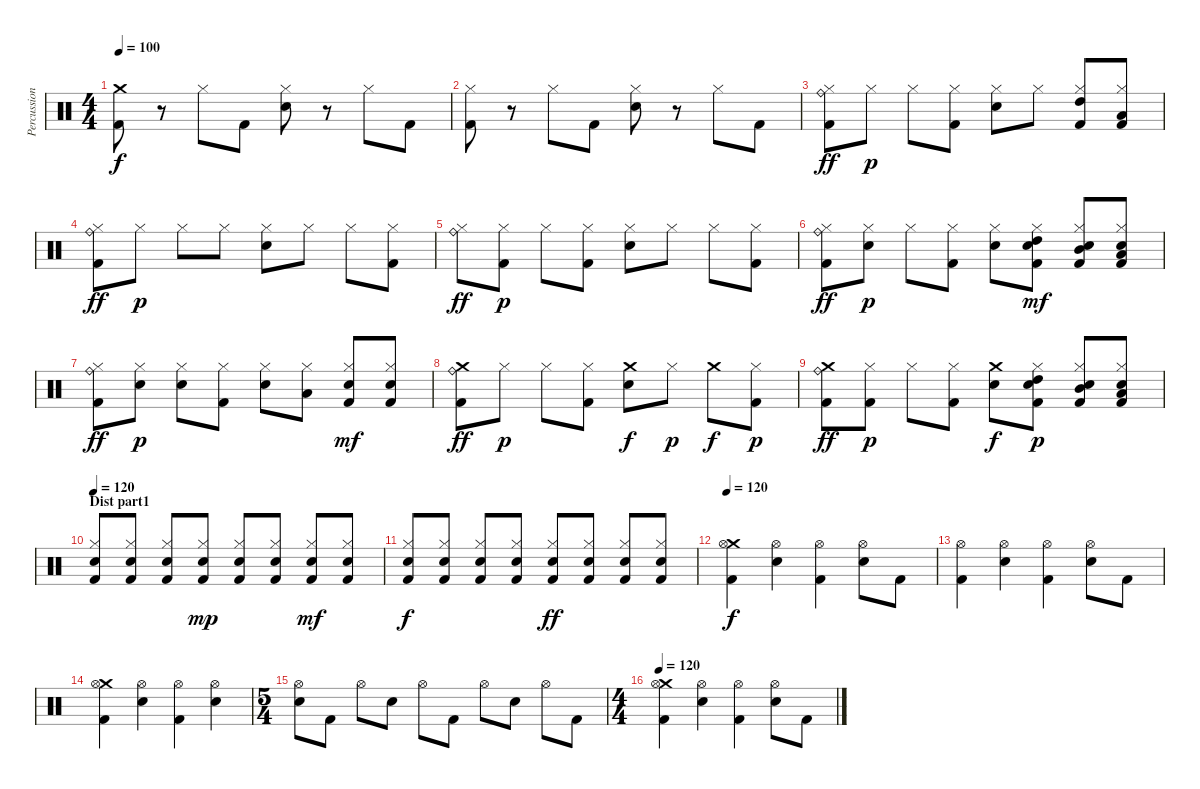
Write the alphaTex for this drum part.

\track ("Percussion" "Percussion") {instrument percussion}
\staff {score}
\articulation defaults
\ts (4 4)
\tempo 100
\clef neutral
\ks c
("Crash medium (hit)" "Kick (hit) 2").8{dy f} r.8 "Hi-Hat (closed)".8 "Kick (hit) 2".8 ("Hi-Hat (closed)" "Snare (hit) 2").8 r.8 "Hi-Hat (closed)".8 "Kick (hit) 2".8 |
("Hi-Hat (closed)" "Kick (hit) 2").8 r.8 "Hi-Hat (closed)".8 "Kick (hit) 2".8 ("Hi-Hat (closed)" "Snare (hit) 2").8 r.8 "Hi-Hat (closed)".8 "Kick (hit) 2".8 |
("Hi-Hat (closed)" "Ride (bell)" "Kick (hit) 2").8{dy ff volume 14} "Hi-Hat (closed)".8{dy p} "Hi-Hat (closed)".8 ("Hi-Hat (closed)" "Kick (hit) 2").8 ("Hi-Hat (closed)" "Snare (hit) 2").8 "Hi-Hat (closed)".8 ("Hi-Hat (closed)" "High Tom (hit)" "Kick (hit) 2").8 ("Hi-Hat (closed)" "Low Tom (hit)" "Kick (hit) 2").8 |
("Hi-Hat (closed)" "Ride (bell)" "Kick (hit) 2").8{dy ff} "Hi-Hat (closed)".8{dy p} "Hi-Hat (closed)".8 "Hi-Hat (closed)".8 ("Hi-Hat (closed)" "Snare (hit) 2").8 "Hi-Hat (closed)".8 "Hi-Hat (closed)".8 ("Hi-Hat (closed)" "Kick (hit) 2").8 |
("Hi-Hat (closed)" "Ride (bell)").8{dy ff} ("Hi-Hat (closed)" "Kick (hit) 2").8{dy p} "Hi-Hat (closed)".8 ("Hi-Hat (closed)" "Kick (hit) 2").8 ("Hi-Hat (closed)" "Snare (hit) 2").8 "Hi-Hat (closed)".8 "Hi-Hat (closed)".8 ("Hi-Hat (closed)" "Kick (hit) 2").8 |
("Hi-Hat (closed)" "Ride (bell)" "Kick (hit) 2").8{dy ff} ("Hi-Hat (closed)" "Snare (hit) 2").8{dy p} "Hi-Hat (closed)".8 ("Hi-Hat (closed)" "Kick (hit) 2").8 ("Hi-Hat (closed)" "Snare (hit) 2").8 ("Hi-Hat (closed)" "High Tom (hit)" "Snare (hit) 2" "Kick (hit) 2").8{dy mf} ("Hi-Hat (closed)" "Mid Tom (hit)" "Snare (hit) 2" "Kick (hit) 2").8 ("Hi-Hat (closed)" "Low Tom (hit)" "Snare (hit) 2" "Kick (hit) 2").8 |
("Hi-Hat (closed)" "Ride (bell)" "Kick (hit) 2").8{dy ff} ("Hi-Hat (closed)" "Snare (hit) 2").8{dy p} ("Hi-Hat (closed)" "Snare (hit) 2").8 ("Hi-Hat (closed)" "Kick (hit) 2").8 ("Hi-Hat (closed)" "Snare (hit) 2").8 ("Hi-Hat (closed)" "Low Tom (hit)").8 ("Hi-Hat (closed)" "Snare (hit) 2" "Kick (hit) 2").8{dy mf} ("Hi-Hat (closed)" "Snare (hit) 2" "Kick (hit) 2").8 |
("Crash medium (hit)" "Ride (bell)" "Kick (hit) 2").8{dy ff} "Hi-Hat (closed)".8{dy p} "Hi-Hat (closed)".8 ("Hi-Hat (closed)" "Kick (hit) 2").8 ("Crash medium (hit)" "Snare (hit) 2").8{dy f} "Hi-Hat (closed)".8{dy p} "Crash medium (hit)".8{dy f} ("Hi-Hat (closed)" "Kick (hit) 2").8{dy p} |
("Crash medium (hit)" "Ride (bell)" "Kick (hit) 2").8{dy ff} ("Hi-Hat (closed)" "Kick (hit) 2").8{dy p} "Hi-Hat (closed)".8 ("Hi-Hat (closed)" "Kick (hit) 2").8 ("Crash medium (hit)" "Snare (hit) 2").8{dy f} ("Hi-Hat (closed)" "High Tom (hit)" "Snare (hit) 2" "Kick (hit) 2").8{dy p} ("Hi-Hat (closed)" "Mid Tom (hit)" "Snare (hit) 2" "Kick (hit) 2").8 ("Hi-Hat (closed)" "Low Tom (hit)" "Snare (hit) 2" "Kick (hit) 2").8 |
\section ("" "Dist part1")
\tempo 120
("Hi-Hat (closed)" "Snare (hit) 2" "Kick (hit) 2").8 ("Hi-Hat (closed)" "Snare (hit) 2" "Kick (hit) 2").8 ("Hi-Hat (closed)" "Snare (hit) 2" "Kick (hit) 2").8 ("Hi-Hat (closed)" "Snare (hit) 2" "Kick (hit) 2").8{dy mp} ("Hi-Hat (closed)" "Snare (hit) 2" "Kick (hit) 2").8 ("Hi-Hat (closed)" "Snare (hit) 2" "Kick (hit) 2").8 ("Hi-Hat (closed)" "Snare (hit) 2" "Kick (hit) 2").8{dy mf} ("Hi-Hat (closed)" "Snare (hit) 2" "Kick (hit) 2").8 |
("Hi-Hat (closed)" "Snare (hit) 2" "Kick (hit) 2").8{dy f} ("Hi-Hat (closed)" "Snare (hit) 2" "Kick (hit) 2").8 ("Hi-Hat (closed)" "Snare (hit) 2" "Kick (hit) 2").8 ("Hi-Hat (closed)" "Snare (hit) 2" "Kick (hit) 2").8 ("Hi-Hat (closed)" "Snare (hit) 2" "Kick (hit) 2").8{dy ff} ("Hi-Hat (closed)" "Snare (hit) 2" "Kick (hit) 2").8 ("Hi-Hat (closed)" "Snare (hit) 2" "Kick (hit) 2").8 ("Hi-Hat (closed)" "Snare (hit) 2" "Kick (hit) 2").8 |
\tempo 120
("Crash medium (hit)" "Hi-Hat (open)" "Kick (hit) 2").4{dy f} ("Hi-Hat (open)" "Snare (hit) 2").4 ("Hi-Hat (open)" "Kick (hit) 2").4 ("Hi-Hat (open)" "Snare (hit) 2").8 "Kick (hit) 2".8 |
("Hi-Hat (open)" "Kick (hit) 2").4 ("Hi-Hat (open)" "Snare (hit) 2").4 ("Hi-Hat (open)" "Kick (hit) 2").4 ("Hi-Hat (open)" "Snare (hit) 2").8 "Kick (hit) 2".8 |
("Crash medium (hit)" "Hi-Hat (open)" "Kick (hit) 2").4 ("Hi-Hat (open)" "Snare (hit) 2").4 ("Hi-Hat (open)" "Kick (hit) 2").4 ("Hi-Hat (open)" "Snare (hit) 2").4 |
\ts (5 4)
("Hi-Hat (open)" "Snare (hit) 2").8 "Kick (hit) 2".8 "Hi-Hat (open)".8 "Snare (hit) 2".8 "Hi-Hat (open)".8 "Kick (hit) 2".8 "Hi-Hat (open)".8 "Snare (hit) 2".8 "Hi-Hat (open)".8 "Kick (hit) 2".8 |
\ts (4 4)
\tempo 120
("Crash medium (hit)" "Hi-Hat (open)" "Kick (hit) 2").4 ("Hi-Hat (open)" "Snare (hit) 2").4 ("Hi-Hat (open)" "Kick (hit) 2").4 ("Hi-Hat (open)" "Snare (hit) 2").8 "Kick (hit) 2".8
